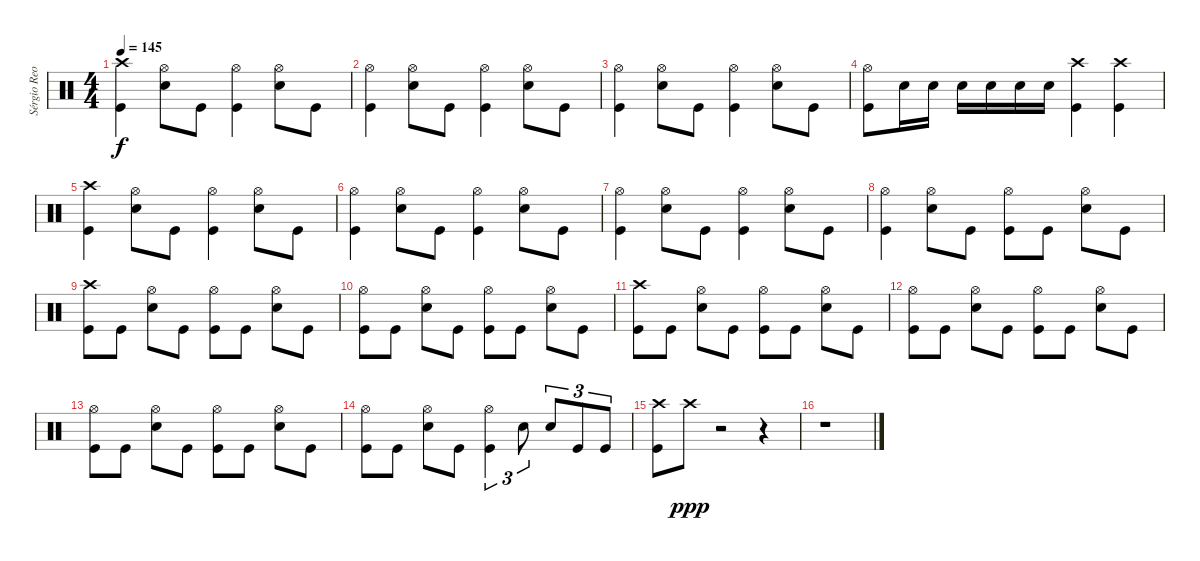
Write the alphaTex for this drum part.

\track ("Sérgio Reoli" "Sérgio Reo") {instrument percussion}
\staff {score}
\articulation defaults
\ts (4 4)
\tempo 145
\clef neutral
\ks c
("Crash high (hit)" "Kick (hit)").4{dy f} ("Hi-Hat (open)" "Electric Snare (hit)").8 "Kick (hit)".8 ("Hi-Hat (open)" "Kick (hit)").4 ("Hi-Hat (open)" "Electric Snare (hit)").8 "Kick (hit)".8 |
("Hi-Hat (open)" "Kick (hit)").4 ("Hi-Hat (open)" "Electric Snare (hit)").8 "Kick (hit)".8 ("Hi-Hat (open)" "Kick (hit)").4 ("Hi-Hat (open)" "Electric Snare (hit)").8 "Kick (hit)".8 |
("Hi-Hat (open)" "Kick (hit)").4 ("Hi-Hat (open)" "Electric Snare (hit)").8 "Kick (hit)".8 ("Hi-Hat (open)" "Kick (hit)").4 ("Hi-Hat (open)" "Electric Snare (hit)").8 "Kick (hit)".8 |
("Hi-Hat (open)" "Kick (hit)").8 "Electric Snare (hit)".16 "Electric Snare (hit)".16 "Electric Snare (hit)".16 "Electric Snare (hit)".16 "Electric Snare (hit)".16 "Electric Snare (hit)".16 ("Crash high (hit)" "Kick (hit)").4 ("Crash high (hit)" "Kick (hit)").4 |
("Crash high (hit)" "Kick (hit)").4 ("Hi-Hat (open)" "Electric Snare (hit)").8 "Kick (hit)".8 ("Hi-Hat (open)" "Kick (hit)").4 ("Hi-Hat (open)" "Electric Snare (hit)").8 "Kick (hit)".8 |
("Hi-Hat (open)" "Kick (hit)").4 ("Hi-Hat (open)" "Electric Snare (hit)").8 "Kick (hit)".8 ("Hi-Hat (open)" "Kick (hit)").4 ("Hi-Hat (open)" "Electric Snare (hit)").8 "Kick (hit)".8 |
("Hi-Hat (open)" "Kick (hit)").4 ("Hi-Hat (open)" "Electric Snare (hit)").8 "Kick (hit)".8 ("Hi-Hat (open)" "Kick (hit)").4 ("Hi-Hat (open)" "Electric Snare (hit)").8 "Kick (hit)".8 |
("Hi-Hat (open)" "Kick (hit)").4 ("Hi-Hat (open)" "Electric Snare (hit)").8 "Kick (hit)".8 ("Hi-Hat (open)" "Kick (hit)").8 "Kick (hit)".8 ("Hi-Hat (open)" "Electric Snare (hit)").8 "Kick (hit)".8 |
("Crash high (hit)" "Kick (hit)").8 "Kick (hit)".8 ("Hi-Hat (open)" "Electric Snare (hit)").8 "Kick (hit)".8 ("Hi-Hat (open)" "Kick (hit)").8 "Kick (hit)".8 ("Hi-Hat (open)" "Electric Snare (hit)").8 "Kick (hit)".8 |
("Hi-Hat (open)" "Kick (hit)").8 "Kick (hit)".8 ("Hi-Hat (open)" "Electric Snare (hit)").8 "Kick (hit)".8 ("Hi-Hat (open)" "Kick (hit)").8 "Kick (hit)".8 ("Hi-Hat (open)" "Electric Snare (hit)").8 "Kick (hit)".8 |
("Crash high (hit)" "Kick (hit)").8 "Kick (hit)".8 ("Hi-Hat (open)" "Electric Snare (hit)").8 "Kick (hit)".8 ("Hi-Hat (open)" "Kick (hit)").8 "Kick (hit)".8 ("Hi-Hat (open)" "Electric Snare (hit)").8 "Kick (hit)".8 |
("Hi-Hat (open)" "Kick (hit)").8 "Kick (hit)".8 ("Hi-Hat (open)" "Electric Snare (hit)").8 "Kick (hit)".8 ("Hi-Hat (open)" "Kick (hit)").8 "Kick (hit)".8 ("Hi-Hat (open)" "Electric Snare (hit)").8 "Kick (hit)".8 |
("Hi-Hat (open)" "Kick (hit)").8 "Kick (hit)".8 ("Hi-Hat (open)" "Electric Snare (hit)").8 "Kick (hit)".8 ("Hi-Hat (open)" "Kick (hit)").8 "Kick (hit)".8 ("Hi-Hat (open)" "Electric Snare (hit)").8 "Kick (hit)".8 |
("Hi-Hat (open)" "Kick (hit)").8 "Kick (hit)".8 ("Hi-Hat (open)" "Electric Snare (hit)").8 "Kick (hit)".8 ("Hi-Hat (open)" "Kick (hit)").4{tu (3 2)} "Electric Snare (hit)".8{tu (3 2)} "Electric Snare (hit)".8{tu (3 2)} "Kick (hit)".8{tu (3 2)} "Kick (hit)".8{tu (3 2)} |
("Crash high (hit)" "Kick (hit)").8 "Crash high (hit)".8{dy ppp} r.2 r.4 |
r.1
